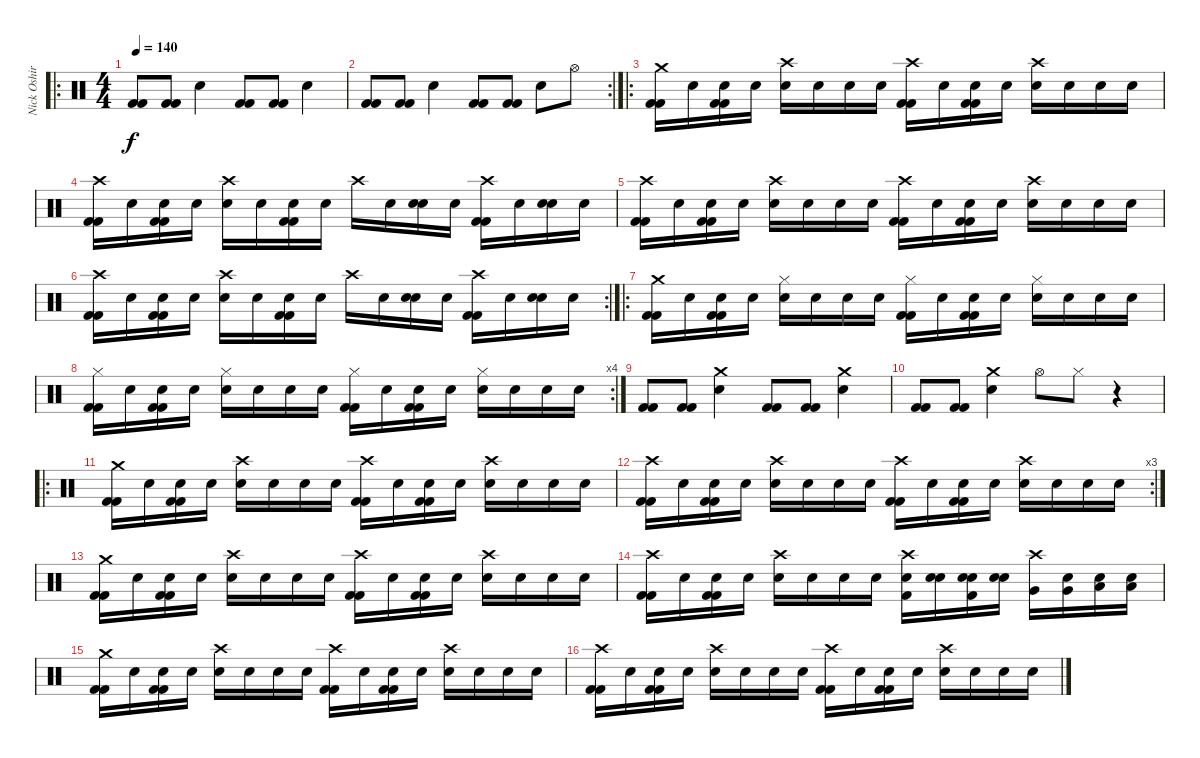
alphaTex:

\track ("Nick Oshiro [drums]" "Nick Oshir") {instrument percussion}
\staff {score}
\articulation defaults
\ro
\ts (4 4)
\tempo 140
\clef neutral
\ks c
("Kick (hit) 2" "Kick (hit) 2").8{dy f} ("Kick (hit) 2" "Kick (hit) 2").8 "Electric Snare (hit)".4 ("Kick (hit) 2" "Kick (hit) 2").8 ("Kick (hit) 2" "Kick (hit) 2").8 "Electric Snare (hit)".4 |
\rc 2
("Kick (hit) 2" "Kick (hit) 2").8 ("Kick (hit) 2" "Kick (hit) 2").8 "Electric Snare (hit)".4 ("Kick (hit) 2" "Kick (hit) 2").8 ("Kick (hit) 2" "Kick (hit) 2").8 "Electric Snare (hit)".8 "Hi-Hat (open)".8 |
\ro
("Crash medium (hit)" "Kick (hit) 2" "Kick (hit) 2").16 "Snare (hit)".16 ("Snare (hit)" "Kick (hit) 2" "Kick (hit) 2").16 "Snare (hit)".16 ("Crash high (hit)" "Electric Snare (hit)").16 "Snare (hit)".16 "Snare (hit)".16 "Snare (hit)".16 ("Crash high (hit)" "Kick (hit) 2" "Kick (hit) 2").16 "Snare (hit)".16 ("Snare (hit)" "Kick (hit) 2" "Kick (hit) 2").16 "Snare (hit)".16 ("Crash high (hit)" "Electric Snare (hit)").16 "Snare (hit)".16 "Snare (hit)".16 "Snare (hit)".16 |
("Crash high (hit)" "Kick (hit) 2" "Kick (hit) 2").16 "Snare (hit)".16 ("Snare (hit)" "Kick (hit) 2" "Kick (hit) 2").16 "Snare (hit)".16 ("Crash high (hit)" "Electric Snare (hit)").16 "Snare (hit)".16 ("Snare (hit)" "Kick (hit) 2" "Kick (hit) 2").16 "Snare (hit)".16 "Crash high (hit)".16 "Snare (hit)".16 ("Snare (hit)" "Electric Snare (hit)").16 "Snare (hit)".16 ("Crash high (hit)" "Kick (hit) 2" "Kick (hit) 2").16 "Snare (hit)".16 ("Snare (hit)" "Electric Snare (hit)").16 "Snare (hit)".16 |
("Crash high (hit)" "Kick (hit) 2" "Kick (hit) 2").16 "Snare (hit)".16 ("Snare (hit)" "Kick (hit) 2" "Kick (hit) 2").16 "Snare (hit)".16 ("Crash high (hit)" "Electric Snare (hit)").16 "Snare (hit)".16 "Snare (hit)".16 "Snare (hit)".16 ("Crash high (hit)" "Kick (hit) 2" "Kick (hit) 2").16 "Snare (hit)".16 ("Snare (hit)" "Kick (hit) 2" "Kick (hit) 2").16 "Snare (hit)".16 ("Crash high (hit)" "Electric Snare (hit)").16 "Snare (hit)".16 "Snare (hit)".16 "Snare (hit)".16 |
\rc 2
("Crash high (hit)" "Kick (hit) 2" "Kick (hit) 2").16 "Snare (hit)".16 ("Snare (hit)" "Kick (hit) 2" "Kick (hit) 2").16 "Snare (hit)".16 ("Crash high (hit)" "Electric Snare (hit)").16 "Snare (hit)".16 ("Snare (hit)" "Kick (hit) 2" "Kick (hit) 2").16 "Snare (hit)".16 "Crash high (hit)".16 "Snare (hit)".16 ("Snare (hit)" "Electric Snare (hit)").16 "Snare (hit)".16 ("Crash high (hit)" "Kick (hit) 2" "Kick (hit) 2").16 "Snare (hit)".16 ("Snare (hit)" "Electric Snare (hit)").16 "Snare (hit)".16 |
\ro
("Crash medium (hit)" "Kick (hit) 2" "Kick (hit) 2").16 "Snare (hit)".16 ("Snare (hit)" "Kick (hit) 2" "Kick (hit) 2").16 "Snare (hit)".16 ("Hi-Hat (closed)" "Electric Snare (hit)").16 "Snare (hit)".16 "Snare (hit)".16 "Snare (hit)".16 ("Hi-Hat (closed)" "Kick (hit) 2" "Kick (hit) 2").16 "Snare (hit)".16 ("Snare (hit)" "Kick (hit) 2" "Kick (hit) 2").16 "Snare (hit)".16 ("Hi-Hat (closed)" "Electric Snare (hit)").16 "Snare (hit)".16 "Snare (hit)".16 "Snare (hit)".16 |
\rc 4
("Hi-Hat (closed)" "Kick (hit) 2" "Kick (hit) 2").16 "Snare (hit)".16 ("Snare (hit)" "Kick (hit) 2" "Kick (hit) 2").16 "Snare (hit)".16 ("Hi-Hat (closed)" "Electric Snare (hit)").16 "Snare (hit)".16 "Snare (hit)".16 "Snare (hit)".16 ("Hi-Hat (closed)" "Kick (hit) 2" "Kick (hit) 2").16 "Snare (hit)".16 ("Snare (hit)" "Kick (hit) 2" "Kick (hit) 2").16 "Snare (hit)".16 ("Hi-Hat (closed)" "Electric Snare (hit)").16 "Snare (hit)".16 "Snare (hit)".16 "Snare (hit)".16 |
("Kick (hit) 2" "Kick (hit) 2").8 ("Kick (hit) 2" "Kick (hit) 2").8 ("Crash medium (hit)" "Electric Snare (hit)").4 ("Kick (hit) 2" "Kick (hit) 2").8 ("Kick (hit) 2" "Kick (hit) 2").8 ("Crash medium (hit)" "Electric Snare (hit)").4 |
("Kick (hit) 2" "Kick (hit) 2").8 ("Kick (hit) 2" "Kick (hit) 2").8 ("Crash medium (hit)" "Electric Snare (hit)").4 "Hi-Hat (open)".8 "Hi-Hat (closed)".8 r.4 |
\ro
("Crash medium (hit)" "Kick (hit) 2" "Kick (hit) 2").16 "Snare (hit)".16 ("Snare (hit)" "Kick (hit) 2" "Kick (hit) 2").16 "Snare (hit)".16 ("Crash high (hit)" "Electric Snare (hit)").16 "Snare (hit)".16 "Snare (hit)".16 "Snare (hit)".16 ("Crash high (hit)" "Kick (hit) 2" "Kick (hit) 2").16 "Snare (hit)".16 ("Snare (hit)" "Kick (hit) 2" "Kick (hit) 2").16 "Snare (hit)".16 ("Crash high (hit)" "Electric Snare (hit)").16 "Snare (hit)".16 "Snare (hit)".16 "Snare (hit)".16 |
\rc 3
("Crash high (hit)" "Kick (hit) 2" "Kick (hit) 2").16 "Snare (hit)".16 ("Snare (hit)" "Kick (hit) 2" "Kick (hit) 2").16 "Snare (hit)".16 ("Crash high (hit)" "Electric Snare (hit)").16 "Snare (hit)".16 "Snare (hit)".16 "Snare (hit)".16 ("Crash high (hit)" "Kick (hit) 2" "Kick (hit) 2").16 "Snare (hit)".16 ("Snare (hit)" "Kick (hit) 2" "Kick (hit) 2").16 "Snare (hit)".16 ("Crash high (hit)" "Electric Snare (hit)").16 "Snare (hit)".16 "Snare (hit)".16 "Snare (hit)".16 |
("Crash medium (hit)" "Kick (hit) 2" "Kick (hit) 2").16 "Snare (hit)".16 ("Snare (hit)" "Kick (hit) 2" "Kick (hit) 2").16 "Snare (hit)".16 ("Crash high (hit)" "Electric Snare (hit)").16 "Snare (hit)".16 "Snare (hit)".16 "Snare (hit)".16 ("Crash high (hit)" "Kick (hit) 2" "Kick (hit) 2").16 "Snare (hit)".16 ("Snare (hit)" "Kick (hit) 2" "Kick (hit) 2").16 "Snare (hit)".16 ("Crash high (hit)" "Electric Snare (hit)").16 "Snare (hit)".16 "Snare (hit)".16 "Snare (hit)".16 |
("Crash high (hit)" "Kick (hit) 2" "Kick (hit) 2").16 "Snare (hit)".16 ("Snare (hit)" "Kick (hit) 2" "Kick (hit) 2").16 "Snare (hit)".16 ("Crash high (hit)" "Electric Snare (hit)").16 "Snare (hit)".16 "Snare (hit)".16 "Snare (hit)".16 ("Crash high (hit)" "Electric Snare (hit)" "Kick (hit) 2").16 ("Snare (hit)" "Electric Snare (hit)").16 ("Snare (hit)" "Electric Snare (hit)" "Kick (hit) 2").16 ("Snare (hit)" "Electric Snare (hit)").16 ("Crash high (hit)" "Very Low Tom (hit)").16 ("Snare (hit)" "Very Low Tom (hit)").16 ("Snare (hit)" "Low Floor Tom (hit)").16 ("Snare (hit)" "Low Floor Tom (hit)").16 |
("Crash medium (hit)" "Kick (hit) 2" "Kick (hit) 2").16 "Snare (hit)".16 ("Snare (hit)" "Kick (hit) 2" "Kick (hit) 2").16 "Snare (hit)".16 ("Crash high (hit)" "Electric Snare (hit)").16 "Snare (hit)".16 "Snare (hit)".16 "Snare (hit)".16 ("Crash high (hit)" "Kick (hit) 2" "Kick (hit) 2").16 "Snare (hit)".16 ("Snare (hit)" "Kick (hit) 2" "Kick (hit) 2").16 "Snare (hit)".16 ("Crash high (hit)" "Electric Snare (hit)").16 "Snare (hit)".16 "Snare (hit)".16 "Snare (hit)".16 |
("Crash high (hit)" "Kick (hit) 2" "Kick (hit) 2").16 "Snare (hit)".16 ("Snare (hit)" "Kick (hit) 2" "Kick (hit) 2").16 "Snare (hit)".16 ("Crash high (hit)" "Electric Snare (hit)").16 "Snare (hit)".16 "Snare (hit)".16 "Snare (hit)".16 ("Crash high (hit)" "Kick (hit) 2" "Kick (hit) 2").16 "Snare (hit)".16 ("Snare (hit)" "Kick (hit) 2" "Kick (hit) 2").16 "Snare (hit)".16 ("Crash high (hit)" "Electric Snare (hit)").16 "Snare (hit)".16 "Snare (hit)".16 "Snare (hit)".16
